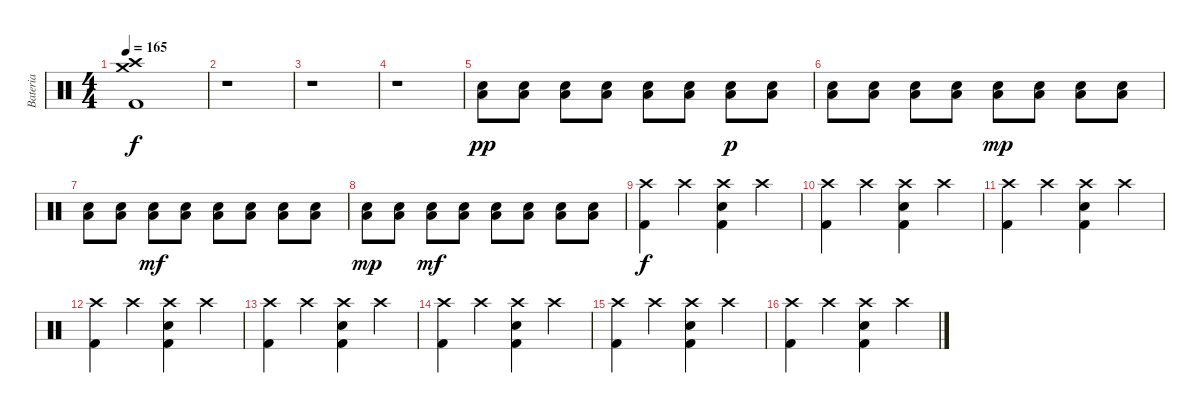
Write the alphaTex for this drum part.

\track ("Bateria" "Bateria") {instrument percussion}
\staff {score}
\articulation defaults
\ts (4 4)
\tempo 165
\clef neutral
\ks c
("Crash medium (hit)" "Crash high (hit)" "Kick (hit) 2").1{dy f} |
r.1 |
r.1 |
r.1 |
("Snare (hit) 2" "Low Floor Tom (hit)").8{dy pp} ("Snare (hit) 2" "Low Floor Tom (hit)").8 ("Snare (hit) 2" "Low Floor Tom (hit)").8 ("Snare (hit) 2" "Low Floor Tom (hit)").8 ("Snare (hit) 2" "Low Floor Tom (hit)").8 ("Snare (hit) 2" "Low Floor Tom (hit)").8 ("Snare (hit) 2" "Low Floor Tom (hit)").8{dy p} ("Snare (hit) 2" "Low Floor Tom (hit)").8 |
("Snare (hit) 2" "Low Floor Tom (hit)").8 ("Snare (hit) 2" "Low Floor Tom (hit)").8 ("Snare (hit) 2" "Low Floor Tom (hit)").8 ("Snare (hit) 2" "Low Floor Tom (hit)").8 ("Snare (hit) 2" "Low Floor Tom (hit)").8{dy mp} ("Snare (hit) 2" "Low Floor Tom (hit)").8 ("Snare (hit) 2" "Low Floor Tom (hit)").8 ("Snare (hit) 2" "Low Floor Tom (hit)").8 |
("Snare (hit) 2" "Low Floor Tom (hit)").8 ("Snare (hit) 2" "Low Floor Tom (hit)").8 ("Snare (hit) 2" "Low Floor Tom (hit)").8{dy mf} ("Snare (hit) 2" "Low Floor Tom (hit)").8 ("Snare (hit) 2" "Low Floor Tom (hit)").8 ("Snare (hit) 2" "Low Floor Tom (hit)").8 ("Snare (hit) 2" "Low Floor Tom (hit)").8 ("Snare (hit) 2" "Low Floor Tom (hit)").8 |
("Snare (hit) 2" "Low Floor Tom (hit)").8{dy mp} ("Snare (hit) 2" "Low Floor Tom (hit)").8 ("Snare (hit) 2" "Low Floor Tom (hit)").8{dy mf} ("Snare (hit) 2" "Low Floor Tom (hit)").8 ("Snare (hit) 2" "Low Floor Tom (hit)").8 ("Snare (hit) 2" "Low Floor Tom (hit)").8 ("Snare (hit) 2" "Low Floor Tom (hit)").8 ("Snare (hit) 2" "Low Floor Tom (hit)").8 |
("Crash high (hit)" "Kick (hit) 2").4{dy f} "Crash high (hit)".4 ("Crash high (hit)" "Kick (hit) 2" "Snare (hit) 2").4 "Crash high (hit)".4 |
("Crash high (hit)" "Kick (hit) 2").4 "Crash high (hit)".4 ("Crash high (hit)" "Kick (hit) 2" "Snare (hit) 2").4 "Crash high (hit)".4 |
("Crash high (hit)" "Kick (hit) 2").4 "Crash high (hit)".4 ("Crash high (hit)" "Kick (hit) 2" "Snare (hit) 2").4 "Crash high (hit)".4 |
("Crash high (hit)" "Kick (hit) 2").4 "Crash high (hit)".4 ("Crash high (hit)" "Kick (hit) 2" "Snare (hit) 2").4 "Crash high (hit)".4 |
("Crash high (hit)" "Kick (hit) 2").4 "Crash high (hit)".4 ("Crash high (hit)" "Kick (hit) 2" "Snare (hit) 2").4 "Crash high (hit)".4 |
("Crash high (hit)" "Kick (hit) 2").4 "Crash high (hit)".4 ("Crash high (hit)" "Kick (hit) 2" "Snare (hit) 2").4 "Crash high (hit)".4 |
("Crash high (hit)" "Kick (hit) 2").4 "Crash high (hit)".4 ("Crash high (hit)" "Kick (hit) 2" "Snare (hit) 2").4 "Crash high (hit)".4 |
("Crash high (hit)" "Kick (hit) 2").4 "Crash high (hit)".4 ("Crash high (hit)" "Kick (hit) 2" "Snare (hit) 2").4 "Crash high (hit)".4
